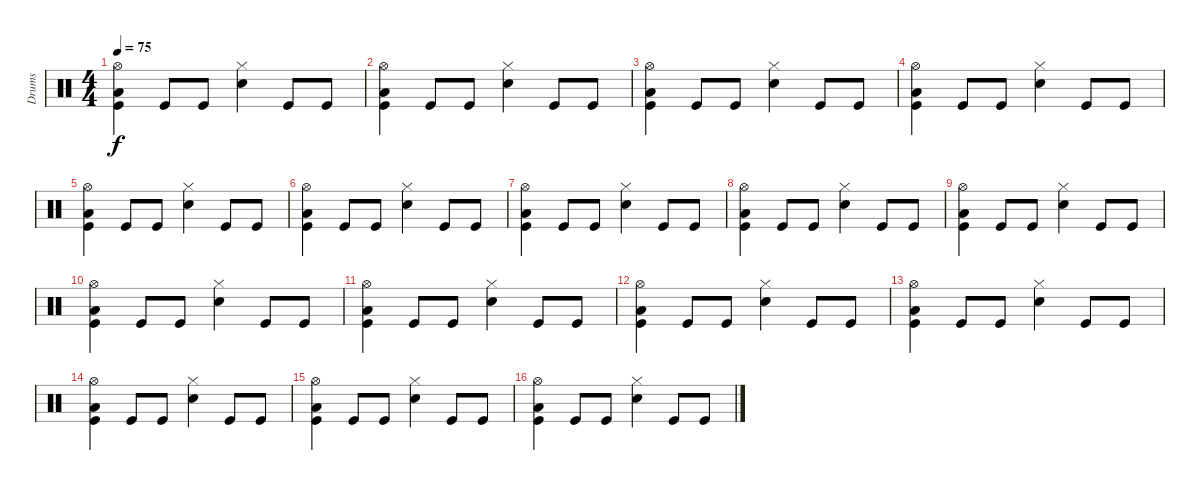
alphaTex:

\track ("Drums" "Drums") {instrument percussion}
\staff {score}
\articulation defaults
\ts (4 4)
\tempo 75
\clef neutral
\ks c
("Hi-Hat (open)" "Low Tom (hit)" "Kick (hit)").4{dy f} "Kick (hit)".8 "Kick (hit)".8 ("Hi-Hat (closed)" "Snare (hit) 2").4 "Kick (hit)".8 "Kick (hit)".8 |
("Hi-Hat (open)" "Low Tom (hit)" "Kick (hit)").4 "Kick (hit)".8 "Kick (hit)".8 ("Hi-Hat (closed)" "Snare (hit) 2").4 "Kick (hit)".8 "Kick (hit)".8 |
("Hi-Hat (open)" "Low Tom (hit)" "Kick (hit)").4 "Kick (hit)".8 "Kick (hit)".8 ("Hi-Hat (closed)" "Snare (hit) 2").4 "Kick (hit)".8 "Kick (hit)".8 |
("Hi-Hat (open)" "Low Tom (hit)" "Kick (hit)").4 "Kick (hit)".8 "Kick (hit)".8 ("Hi-Hat (closed)" "Snare (hit) 2").4 "Kick (hit)".8 "Kick (hit)".8 |
("Hi-Hat (open)" "Low Tom (hit)" "Kick (hit)").4 "Kick (hit)".8 "Kick (hit)".8 ("Hi-Hat (closed)" "Snare (hit) 2").4 "Kick (hit)".8 "Kick (hit)".8 |
("Hi-Hat (open)" "Low Tom (hit)" "Kick (hit)").4 "Kick (hit)".8 "Kick (hit)".8 ("Hi-Hat (closed)" "Snare (hit) 2").4 "Kick (hit)".8 "Kick (hit)".8 |
("Hi-Hat (open)" "Low Tom (hit)" "Kick (hit)").4 "Kick (hit)".8 "Kick (hit)".8 ("Hi-Hat (closed)" "Snare (hit) 2").4 "Kick (hit)".8 "Kick (hit)".8 |
("Hi-Hat (open)" "Low Tom (hit)" "Kick (hit)").4 "Kick (hit)".8 "Kick (hit)".8 ("Hi-Hat (closed)" "Snare (hit) 2").4 "Kick (hit)".8 "Kick (hit)".8 |
("Hi-Hat (open)" "Low Tom (hit)" "Kick (hit)").4 "Kick (hit)".8 "Kick (hit)".8 ("Hi-Hat (closed)" "Snare (hit) 2").4 "Kick (hit)".8 "Kick (hit)".8 |
("Hi-Hat (open)" "Low Tom (hit)" "Kick (hit)").4 "Kick (hit)".8 "Kick (hit)".8 ("Hi-Hat (closed)" "Snare (hit) 2").4 "Kick (hit)".8 "Kick (hit)".8 |
("Hi-Hat (open)" "Low Tom (hit)" "Kick (hit)").4 "Kick (hit)".8 "Kick (hit)".8 ("Hi-Hat (closed)" "Snare (hit) 2").4 "Kick (hit)".8 "Kick (hit)".8 |
("Hi-Hat (open)" "Low Tom (hit)" "Kick (hit)").4 "Kick (hit)".8 "Kick (hit)".8 ("Hi-Hat (closed)" "Snare (hit) 2").4 "Kick (hit)".8 "Kick (hit)".8 |
("Hi-Hat (open)" "Low Tom (hit)" "Kick (hit)").4 "Kick (hit)".8 "Kick (hit)".8 ("Hi-Hat (closed)" "Snare (hit) 2").4 "Kick (hit)".8 "Kick (hit)".8 |
("Hi-Hat (open)" "Low Tom (hit)" "Kick (hit)").4 "Kick (hit)".8 "Kick (hit)".8 ("Hi-Hat (closed)" "Snare (hit) 2").4 "Kick (hit)".8 "Kick (hit)".8 |
("Hi-Hat (open)" "Low Tom (hit)" "Kick (hit)").4 "Kick (hit)".8 "Kick (hit)".8 ("Hi-Hat (closed)" "Snare (hit) 2").4 "Kick (hit)".8 "Kick (hit)".8 |
("Hi-Hat (open)" "Low Tom (hit)" "Kick (hit)").4 "Kick (hit)".8 "Kick (hit)".8 ("Hi-Hat (closed)" "Snare (hit) 2").4 "Kick (hit)".8 "Kick (hit)".8
